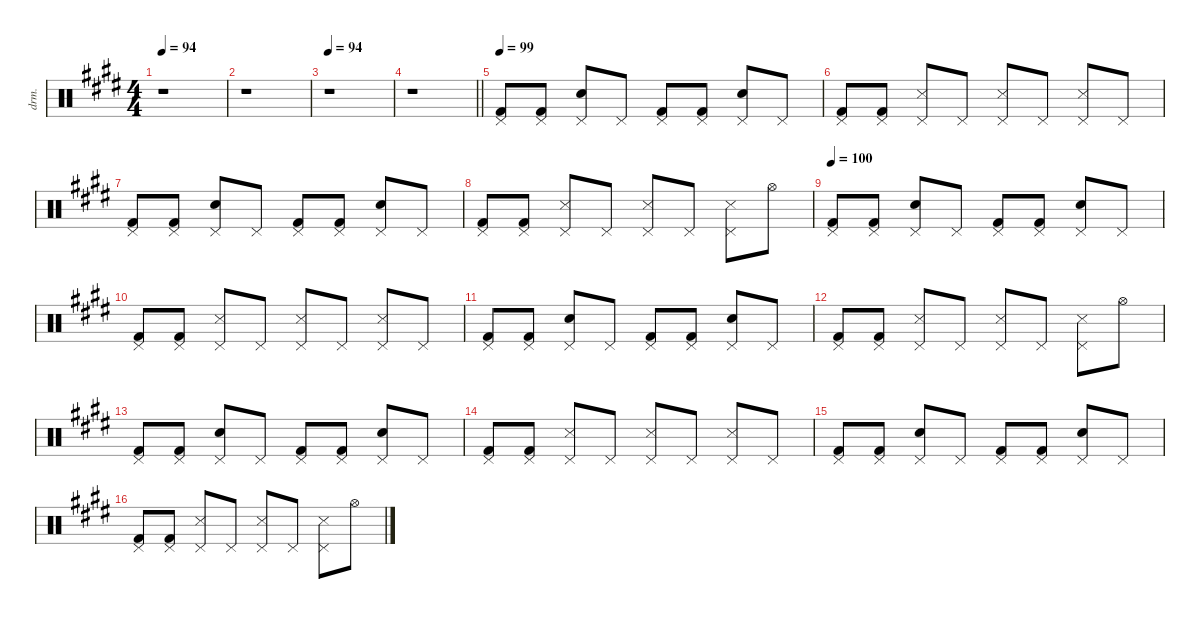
\defaultSystemsLayout 4
\hideDynamics
\bracketExtendMode nobrackets
\otherSystemsTrackNameOrientation horizontal
\track ("Percussion" "drm.") {instrument percussion}
\staff {score}
\articulation defaults
\ts (4 4)
\beaming (8 2 2 2 2)
\tempo 94
\clef neutral
\ks c#minor
r.1{dy f beam Down} |
r.1{beam Down} |
\tempo 94
r.1{beam Down} |
\barLineRight lightlight
r.1{beam Down} |
\tempo 99
("Kick (hit) 2"{acc forcenatural} "Pedal Hi-Hat (hit)"{acc forcenatural}).8{beam Up} ("Kick (hit) 2"{acc forcenatural} "Pedal Hi-Hat (hit)"{acc forcenatural}).8{beam Up} ("Snare (hit) 2"{acc forcenatural} "Pedal Hi-Hat (hit)"{acc forcenatural}).8{beam Up} "Pedal Hi-Hat (hit)"{acc forcenatural}.8{beam Up} ("Kick (hit) 2"{acc forcenatural} "Pedal Hi-Hat (hit)"{acc forcenatural}).8{beam Up} ("Kick (hit) 2"{acc forcenatural} "Pedal Hi-Hat (hit)"{acc forcenatural}).8{beam Up} ("Snare (hit) 2"{acc forcenatural} "Pedal Hi-Hat (hit)"{acc forcenatural}).8{beam Up} "Pedal Hi-Hat (hit)"{acc forcenatural}.8{beam Up} |
("Kick (hit) 2"{acc forcenatural} "Pedal Hi-Hat (hit)"{acc forcenatural}).8{beam Up} ("Kick (hit) 2"{acc forcenatural} "Pedal Hi-Hat (hit)"{acc forcenatural}).8{beam Up} ("Metronome (hit)"{acc forcenatural} "Pedal Hi-Hat (hit)"{acc forcenatural}).8{beam Up} "Pedal Hi-Hat (hit)"{acc forcenatural}.8{beam Up} ("Metronome (hit)"{acc forcenatural} "Pedal Hi-Hat (hit)"{acc forcenatural}).8{beam Up} "Pedal Hi-Hat (hit)"{acc forcenatural}.8{beam Up} ("Metronome (hit)"{acc forcenatural} "Pedal Hi-Hat (hit)"{acc forcenatural}).8{beam Up} "Pedal Hi-Hat (hit)"{acc forcenatural}.8{beam Up} |
("Kick (hit) 2"{acc forcenatural} "Pedal Hi-Hat (hit)"{acc forcenatural}).8{beam Up} ("Kick (hit) 2"{acc forcenatural} "Pedal Hi-Hat (hit)"{acc forcenatural}).8{beam Up} ("Snare (hit) 2"{acc forcenatural} "Pedal Hi-Hat (hit)"{acc forcenatural}).8{beam Up} "Pedal Hi-Hat (hit)"{acc forcenatural}.8{beam Up} ("Kick (hit) 2"{acc forcenatural} "Pedal Hi-Hat (hit)"{acc forcenatural}).8{beam Up} ("Kick (hit) 2"{acc forcenatural} "Pedal Hi-Hat (hit)"{acc forcenatural}).8{beam Up} ("Snare (hit) 2"{acc forcenatural} "Pedal Hi-Hat (hit)"{acc forcenatural}).8{beam Up} "Pedal Hi-Hat (hit)"{acc forcenatural}.8{beam Up} |
("Kick (hit) 2"{acc forcenatural} "Pedal Hi-Hat (hit)"{acc forcenatural}).8{beam Up} ("Kick (hit) 2"{acc forcenatural} "Pedal Hi-Hat (hit)"{acc forcenatural}).8{beam Up} ("Metronome (hit)"{acc forcenatural} "Pedal Hi-Hat (hit)"{acc forcenatural}).8{beam Up} "Pedal Hi-Hat (hit)"{acc forcenatural}.8{beam Up} ("Metronome (hit)"{acc forcenatural} "Pedal Hi-Hat (hit)"{acc forcenatural}).8{beam Up} "Pedal Hi-Hat (hit)"{acc forcenatural}.8{beam Up} ("Metronome (hit)"{acc forcenatural} "Pedal Hi-Hat (hit)"{acc forcenatural}).8{beam Down} "Hi-Hat (open)"{acc forcenatural}.8{beam Down} |
\tempo 100
("Kick (hit) 2"{acc forcenatural} "Pedal Hi-Hat (hit)"{acc forcenatural}).8{beam Up} ("Kick (hit) 2"{acc forcenatural} "Pedal Hi-Hat (hit)"{acc forcenatural}).8{beam Up} ("Snare (hit) 2"{acc forcenatural} "Pedal Hi-Hat (hit)"{acc forcenatural}).8{beam Up} "Pedal Hi-Hat (hit)"{acc forcenatural}.8{beam Up} ("Kick (hit) 2"{acc forcenatural} "Pedal Hi-Hat (hit)"{acc forcenatural}).8{beam Up} ("Kick (hit) 2"{acc forcenatural} "Pedal Hi-Hat (hit)"{acc forcenatural}).8{beam Up} ("Snare (hit) 2"{acc forcenatural} "Pedal Hi-Hat (hit)"{acc forcenatural}).8{beam Up} "Pedal Hi-Hat (hit)"{acc forcenatural}.8{beam Up} |
("Kick (hit) 2"{acc forcenatural} "Pedal Hi-Hat (hit)"{acc forcenatural}).8{beam Up} ("Kick (hit) 2"{acc forcenatural} "Pedal Hi-Hat (hit)"{acc forcenatural}).8{beam Up} ("Metronome (hit)"{acc forcenatural} "Pedal Hi-Hat (hit)"{acc forcenatural}).8{beam Up} "Pedal Hi-Hat (hit)"{acc forcenatural}.8{beam Up} ("Metronome (hit)"{acc forcenatural} "Pedal Hi-Hat (hit)"{acc forcenatural}).8{beam Up} "Pedal Hi-Hat (hit)"{acc forcenatural}.8{beam Up} ("Metronome (hit)"{acc forcenatural} "Pedal Hi-Hat (hit)"{acc forcenatural}).8{beam Up} "Pedal Hi-Hat (hit)"{acc forcenatural}.8{beam Up} |
("Kick (hit) 2"{acc forcenatural} "Pedal Hi-Hat (hit)"{acc forcenatural}).8{beam Up} ("Kick (hit) 2"{acc forcenatural} "Pedal Hi-Hat (hit)"{acc forcenatural}).8{beam Up} ("Snare (hit) 2"{acc forcenatural} "Pedal Hi-Hat (hit)"{acc forcenatural}).8{beam Up} "Pedal Hi-Hat (hit)"{acc forcenatural}.8{beam Up} ("Kick (hit) 2"{acc forcenatural} "Pedal Hi-Hat (hit)"{acc forcenatural}).8{beam Up} ("Kick (hit) 2"{acc forcenatural} "Pedal Hi-Hat (hit)"{acc forcenatural}).8{beam Up} ("Snare (hit) 2"{acc forcenatural} "Pedal Hi-Hat (hit)"{acc forcenatural}).8{beam Up} "Pedal Hi-Hat (hit)"{acc forcenatural}.8{beam Up} |
("Kick (hit) 2"{acc forcenatural} "Pedal Hi-Hat (hit)"{acc forcenatural}).8{beam Up} ("Kick (hit) 2"{acc forcenatural} "Pedal Hi-Hat (hit)"{acc forcenatural}).8{beam Up} ("Metronome (hit)"{acc forcenatural} "Pedal Hi-Hat (hit)"{acc forcenatural}).8{beam Up} "Pedal Hi-Hat (hit)"{acc forcenatural}.8{beam Up} ("Metronome (hit)"{acc forcenatural} "Pedal Hi-Hat (hit)"{acc forcenatural}).8{beam Up} "Pedal Hi-Hat (hit)"{acc forcenatural}.8{beam Up} ("Metronome (hit)"{acc forcenatural} "Pedal Hi-Hat (hit)"{acc forcenatural}).8{beam Down} "Hi-Hat (open)"{acc forcenatural}.8{beam Down} |
("Kick (hit) 2"{acc forcenatural} "Pedal Hi-Hat (hit)"{acc forcenatural}).8{beam Up} ("Kick (hit) 2"{acc forcenatural} "Pedal Hi-Hat (hit)"{acc forcenatural}).8{beam Up} ("Snare (hit) 2"{acc forcenatural} "Pedal Hi-Hat (hit)"{acc forcenatural}).8{beam Up} "Pedal Hi-Hat (hit)"{acc forcenatural}.8{beam Up} ("Kick (hit) 2"{acc forcenatural} "Pedal Hi-Hat (hit)"{acc forcenatural}).8{beam Up} ("Kick (hit) 2"{acc forcenatural} "Pedal Hi-Hat (hit)"{acc forcenatural}).8{beam Up} ("Snare (hit) 2"{acc forcenatural} "Pedal Hi-Hat (hit)"{acc forcenatural}).8{beam Up} "Pedal Hi-Hat (hit)"{acc forcenatural}.8{beam Up} |
("Kick (hit) 2"{acc forcenatural} "Pedal Hi-Hat (hit)"{acc forcenatural}).8{beam Up} ("Kick (hit) 2"{acc forcenatural} "Pedal Hi-Hat (hit)"{acc forcenatural}).8{beam Up} ("Metronome (hit)"{acc forcenatural} "Pedal Hi-Hat (hit)"{acc forcenatural}).8{beam Up} "Pedal Hi-Hat (hit)"{acc forcenatural}.8{beam Up} ("Metronome (hit)"{acc forcenatural} "Pedal Hi-Hat (hit)"{acc forcenatural}).8{beam Up} "Pedal Hi-Hat (hit)"{acc forcenatural}.8{beam Up} ("Metronome (hit)"{acc forcenatural} "Pedal Hi-Hat (hit)"{acc forcenatural}).8{beam Up} "Pedal Hi-Hat (hit)"{acc forcenatural}.8{beam Up} |
("Kick (hit) 2"{acc forcenatural} "Pedal Hi-Hat (hit)"{acc forcenatural}).8{beam Up} ("Kick (hit) 2"{acc forcenatural} "Pedal Hi-Hat (hit)"{acc forcenatural}).8{beam Up} ("Snare (hit) 2"{acc forcenatural} "Pedal Hi-Hat (hit)"{acc forcenatural}).8{beam Up} "Pedal Hi-Hat (hit)"{acc forcenatural}.8{beam Up} ("Kick (hit) 2"{acc forcenatural} "Pedal Hi-Hat (hit)"{acc forcenatural}).8{beam Up} ("Kick (hit) 2"{acc forcenatural} "Pedal Hi-Hat (hit)"{acc forcenatural}).8{beam Up} ("Snare (hit) 2"{acc forcenatural} "Pedal Hi-Hat (hit)"{acc forcenatural}).8{beam Up} "Pedal Hi-Hat (hit)"{acc forcenatural}.8{beam Up} |
("Kick (hit) 2"{acc forcenatural} "Pedal Hi-Hat (hit)"{acc forcenatural}).8{beam Up} ("Kick (hit) 2"{acc forcenatural} "Pedal Hi-Hat (hit)"{acc forcenatural}).8{beam Up} ("Metronome (hit)"{acc forcenatural} "Pedal Hi-Hat (hit)"{acc forcenatural}).8{beam Up} "Pedal Hi-Hat (hit)"{acc forcenatural}.8{beam Up} ("Metronome (hit)"{acc forcenatural} "Pedal Hi-Hat (hit)"{acc forcenatural}).8{beam Up} "Pedal Hi-Hat (hit)"{acc forcenatural}.8{beam Up} ("Metronome (hit)"{acc forcenatural} "Pedal Hi-Hat (hit)"{acc forcenatural}).8{beam Down} "Hi-Hat (open)"{acc forcenatural}.8{beam Down}
